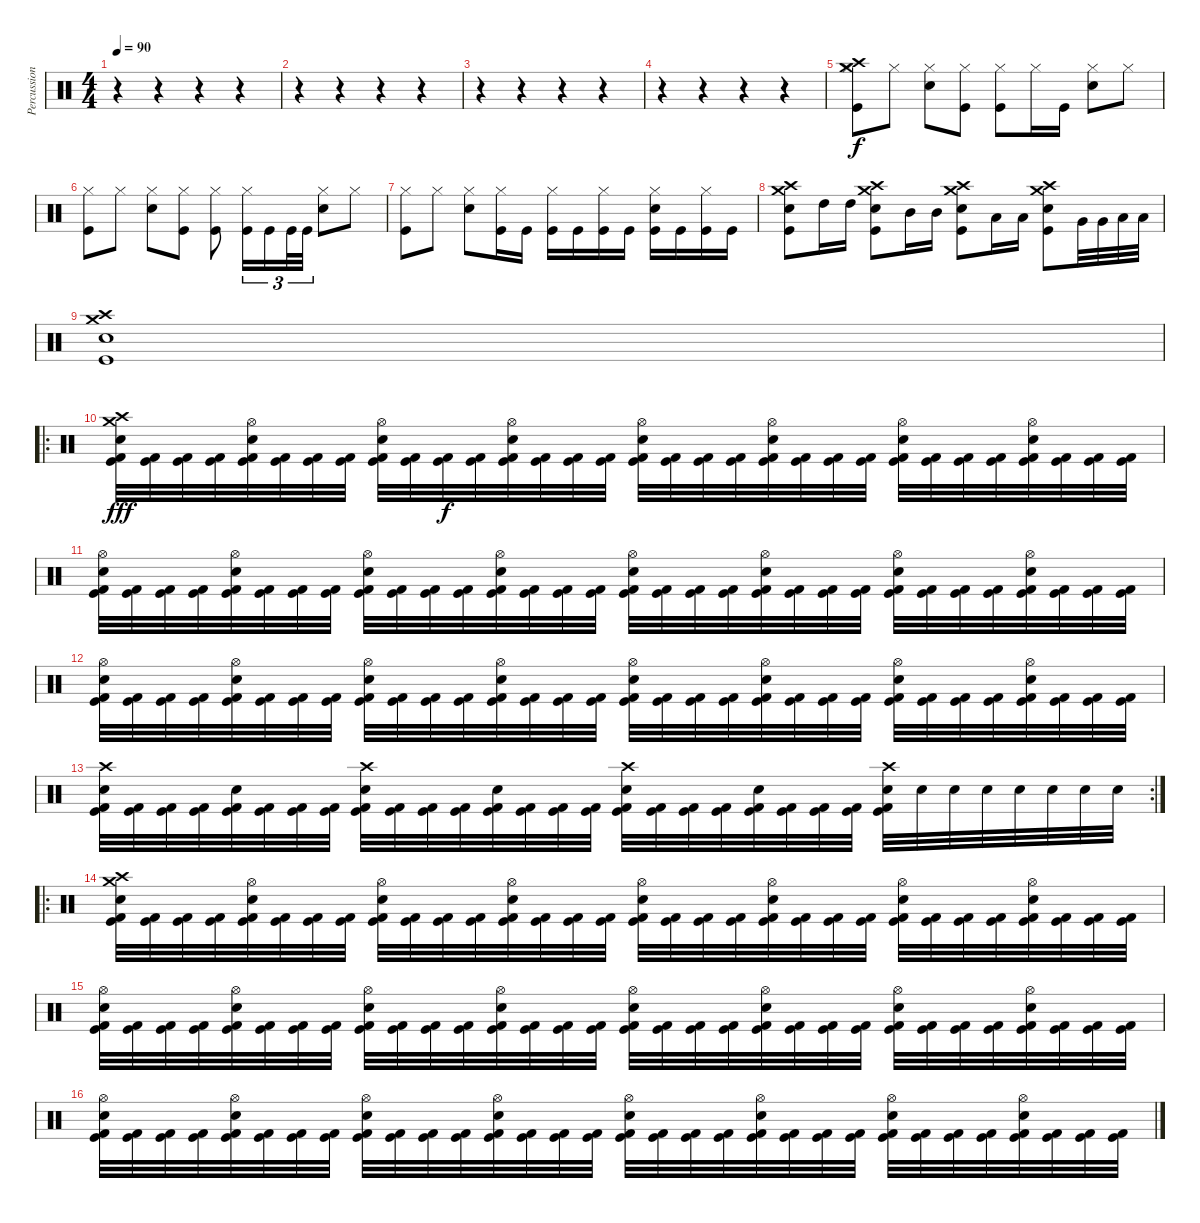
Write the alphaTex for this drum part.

\track ("Percussion" "Percussion") {instrument percussion}
\staff {score}
\articulation defaults
\ts (4 4)
\tempo 90
\clef neutral
\ks c
r.4{dy f} r.4 r.4 r.4 |
r.4 r.4 r.4 r.4 |
r.4 r.4 r.4 r.4 |
r.4 r.4 r.4 r.4 |
("Crash medium (hit)" "Crash high (hit)" "Hi-Hat (closed)" "Kick (hit)").8 "Hi-Hat (closed)".8 ("Hi-Hat (closed)" "Electric Snare (hit)").8 ("Hi-Hat (closed)" "Kick (hit)").8 ("Hi-Hat (closed)" "Kick (hit)").8 "Hi-Hat (closed)".16 "Kick (hit)".16 ("Hi-Hat (closed)" "Electric Snare (hit)").8 "Hi-Hat (closed)".8 |
("Hi-Hat (closed)" "Kick (hit)").8 "Hi-Hat (closed)".8 ("Hi-Hat (closed)" "Electric Snare (hit)").8 ("Hi-Hat (closed)" "Kick (hit)").8 ("Hi-Hat (closed)" "Kick (hit)").8 ("Hi-Hat (closed)" "Kick (hit)").16{tu (3 2)} "Kick (hit)".16{tu (3 2)} "Kick (hit)".32{tu (3 2)} "Kick (hit)".32{tu (3 2)} ("Hi-Hat (closed)" "Electric Snare (hit)").8 "Hi-Hat (closed)".8 |
("Hi-Hat (closed)" "Kick (hit)").8 "Hi-Hat (closed)".8 ("Hi-Hat (closed)" "Electric Snare (hit)").8 ("Hi-Hat (closed)" "Kick (hit)").16 "Kick (hit)".16 ("Hi-Hat (closed)" "Kick (hit)").16 "Kick (hit)".16 ("Hi-Hat (closed)" "Kick (hit)").16 "Kick (hit)".16 ("Hi-Hat (closed)" "Electric Snare (hit)" "Kick (hit)").16 "Kick (hit)".16 ("Hi-Hat (closed)" "Kick (hit)").16 "Kick (hit)".16 |
("Crash medium (hit)" "Crash high (hit)" "Electric Snare (hit)" "Kick (hit)").8 "High Tom (hit)".16 "High Tom (hit)".16 ("Crash medium (hit)" "Crash high (hit)" "Electric Snare (hit)" "Kick (hit)").8 "Mid Tom (hit)".16 "Mid Tom (hit)".16 ("Crash medium (hit)" "Crash high (hit)" "Electric Snare (hit)" "Kick (hit)").8 "Low Tom (hit)".16 "Low Tom (hit)".16 ("Crash medium (hit)" "Crash high (hit)" "Electric Snare (hit)" "Kick (hit)").8 "Very Low Tom (hit)".32 "Very Low Tom (hit)".32 "Low Floor Tom (hit)".32 "Low Floor Tom (hit)".32 |
("Crash medium (hit)" "Crash high (hit)" "Electric Snare (hit)" "Kick (hit)").1 |
\ro
("Kick (hit) 2" "Crash medium (hit)" "Crash high (hit)" "Electric Snare (hit)" "Kick (hit)").32{dy fff} ("Kick (hit) 2" "Kick (hit)").32 ("Kick (hit) 2" "Kick (hit)").32 ("Kick (hit) 2" "Kick (hit)").32 ("Kick (hit) 2" "Hi-Hat (open)" "Electric Snare (hit)" "Kick (hit)").32 ("Kick (hit) 2" "Kick (hit)").32 ("Kick (hit) 2" "Kick (hit)").32 ("Kick (hit) 2" "Kick (hit)").32 ("Kick (hit) 2" "Hi-Hat (open)" "Electric Snare (hit)" "Kick (hit)").32 ("Kick (hit) 2" "Kick (hit)").32 ("Kick (hit) 2" "Kick (hit)").32{dy f} ("Kick (hit) 2" "Kick (hit)").32 ("Kick (hit) 2" "Hi-Hat (open)" "Electric Snare (hit)" "Kick (hit)").32 ("Kick (hit) 2" "Kick (hit)").32 ("Kick (hit) 2" "Kick (hit)").32 ("Kick (hit) 2" "Kick (hit)").32 ("Kick (hit) 2" "Hi-Hat (open)" "Electric Snare (hit)" "Kick (hit)").32 ("Kick (hit) 2" "Kick (hit)").32 ("Kick (hit) 2" "Kick (hit)").32 ("Kick (hit) 2" "Kick (hit)").32 ("Kick (hit) 2" "Hi-Hat (open)" "Electric Snare (hit)" "Kick (hit)").32 ("Kick (hit) 2" "Kick (hit)").32 ("Kick (hit) 2" "Kick (hit)").32 ("Kick (hit) 2" "Kick (hit)").32 ("Kick (hit) 2" "Hi-Hat (open)" "Electric Snare (hit)" "Kick (hit)").32 ("Kick (hit) 2" "Kick (hit)").32 ("Kick (hit) 2" "Kick (hit)").32 ("Kick (hit) 2" "Kick (hit)").32 ("Kick (hit) 2" "Hi-Hat (open)" "Electric Snare (hit)" "Kick (hit)").32 ("Kick (hit) 2" "Kick (hit)").32 ("Kick (hit) 2" "Kick (hit)").32 ("Kick (hit) 2" "Kick (hit)").32 |
("Kick (hit) 2" "Hi-Hat (open)" "Electric Snare (hit)" "Kick (hit)").32 ("Kick (hit) 2" "Kick (hit)").32 ("Kick (hit) 2" "Kick (hit)").32 ("Kick (hit) 2" "Kick (hit)").32 ("Kick (hit) 2" "Hi-Hat (open)" "Electric Snare (hit)" "Kick (hit)").32 ("Kick (hit) 2" "Kick (hit)").32 ("Kick (hit) 2" "Kick (hit)").32 ("Kick (hit) 2" "Kick (hit)").32 ("Kick (hit) 2" "Hi-Hat (open)" "Electric Snare (hit)" "Kick (hit)").32 ("Kick (hit) 2" "Kick (hit)").32 ("Kick (hit) 2" "Kick (hit)").32 ("Kick (hit) 2" "Kick (hit)").32 ("Kick (hit) 2" "Hi-Hat (open)" "Electric Snare (hit)" "Kick (hit)").32 ("Kick (hit) 2" "Kick (hit)").32 ("Kick (hit) 2" "Kick (hit)").32 ("Kick (hit) 2" "Kick (hit)").32 ("Kick (hit) 2" "Hi-Hat (open)" "Electric Snare (hit)" "Kick (hit)").32 ("Kick (hit) 2" "Kick (hit)").32 ("Kick (hit) 2" "Kick (hit)").32 ("Kick (hit) 2" "Kick (hit)").32 ("Kick (hit) 2" "Hi-Hat (open)" "Electric Snare (hit)" "Kick (hit)").32 ("Kick (hit) 2" "Kick (hit)").32 ("Kick (hit) 2" "Kick (hit)").32 ("Kick (hit) 2" "Kick (hit)").32 ("Kick (hit) 2" "Hi-Hat (open)" "Electric Snare (hit)" "Kick (hit)").32 ("Kick (hit) 2" "Kick (hit)").32 ("Kick (hit) 2" "Kick (hit)").32 ("Kick (hit) 2" "Kick (hit)").32 ("Kick (hit) 2" "Hi-Hat (open)" "Electric Snare (hit)" "Kick (hit)").32 ("Kick (hit) 2" "Kick (hit)").32 ("Kick (hit) 2" "Kick (hit)").32 ("Kick (hit) 2" "Kick (hit)").32 |
("Kick (hit) 2" "Hi-Hat (open)" "Electric Snare (hit)" "Kick (hit)").32 ("Kick (hit) 2" "Kick (hit)").32 ("Kick (hit) 2" "Kick (hit)").32 ("Kick (hit) 2" "Kick (hit)").32 ("Kick (hit) 2" "Hi-Hat (open)" "Electric Snare (hit)" "Kick (hit)").32 ("Kick (hit) 2" "Kick (hit)").32 ("Kick (hit) 2" "Kick (hit)").32 ("Kick (hit) 2" "Kick (hit)").32 ("Kick (hit) 2" "Hi-Hat (open)" "Electric Snare (hit)" "Kick (hit)").32 ("Kick (hit) 2" "Kick (hit)").32 ("Kick (hit) 2" "Kick (hit)").32 ("Kick (hit) 2" "Kick (hit)").32 ("Kick (hit) 2" "Hi-Hat (open)" "Electric Snare (hit)" "Kick (hit)").32 ("Kick (hit) 2" "Kick (hit)").32 ("Kick (hit) 2" "Kick (hit)").32 ("Kick (hit) 2" "Kick (hit)").32 ("Kick (hit) 2" "Hi-Hat (open)" "Electric Snare (hit)" "Kick (hit)").32 ("Kick (hit) 2" "Kick (hit)").32 ("Kick (hit) 2" "Kick (hit)").32 ("Kick (hit) 2" "Kick (hit)").32 ("Kick (hit) 2" "Hi-Hat (open)" "Electric Snare (hit)" "Kick (hit)").32 ("Kick (hit) 2" "Kick (hit)").32 ("Kick (hit) 2" "Kick (hit)").32 ("Kick (hit) 2" "Kick (hit)").32 ("Kick (hit) 2" "Hi-Hat (open)" "Electric Snare (hit)" "Kick (hit)").32 ("Kick (hit) 2" "Kick (hit)").32 ("Kick (hit) 2" "Kick (hit)").32 ("Kick (hit) 2" "Kick (hit)").32 ("Kick (hit) 2" "Hi-Hat (open)" "Electric Snare (hit)" "Kick (hit)").32 ("Kick (hit) 2" "Kick (hit)").32 ("Kick (hit) 2" "Kick (hit)").32 ("Kick (hit) 2" "Kick (hit)").32 |
\rc 2
("Crash high (hit)" "Electric Snare (hit)" "Kick (hit) 2" "Kick (hit)").32 ("Kick (hit)" "Kick (hit) 2").32 ("Kick (hit)" "Kick (hit) 2").32 ("Kick (hit)" "Kick (hit) 2").32 ("Electric Snare (hit)" "Kick (hit)" "Kick (hit) 2").32 ("Kick (hit)" "Kick (hit) 2").32 ("Kick (hit)" "Kick (hit) 2").32 ("Kick (hit)" "Kick (hit) 2").32 ("Crash high (hit)" "Electric Snare (hit)" "Kick (hit) 2" "Kick (hit)").32 ("Kick (hit)" "Kick (hit) 2").32 ("Kick (hit)" "Kick (hit) 2").32 ("Kick (hit)" "Kick (hit) 2").32 ("Electric Snare (hit)" "Kick (hit)" "Kick (hit) 2").32 ("Kick (hit)" "Kick (hit) 2").32 ("Kick (hit)" "Kick (hit) 2").32 ("Kick (hit)" "Kick (hit) 2").32 ("Crash high (hit)" "Electric Snare (hit)" "Kick (hit)" "Kick (hit) 2").32 ("Kick (hit)" "Kick (hit) 2").32 ("Kick (hit)" "Kick (hit) 2").32 ("Kick (hit)" "Kick (hit) 2").32 ("Electric Snare (hit)" "Kick (hit)" "Kick (hit) 2").32 ("Kick (hit)" "Kick (hit) 2").32 ("Kick (hit)" "Kick (hit) 2").32 ("Kick (hit)" "Kick (hit) 2").32 ("Crash high (hit)" "Electric Snare (hit)" "Kick (hit)" "Kick (hit) 2").32 "Electric Snare (hit)".32 "Electric Snare (hit)".32 "Electric Snare (hit)".32 "Electric Snare (hit)".32 "Electric Snare (hit)".32 "Electric Snare (hit)".32 "Electric Snare (hit)".32 |
\ro
("Crash medium (hit)" "Crash high (hit)" "Kick (hit) 2" "Electric Snare (hit)" "Kick (hit)").32 ("Kick (hit) 2" "Kick (hit)").32 ("Kick (hit) 2" "Kick (hit)").32 ("Kick (hit) 2" "Kick (hit)").32 ("Hi-Hat (open)" "Kick (hit) 2" "Electric Snare (hit)" "Kick (hit)").32 ("Kick (hit) 2" "Kick (hit)").32 ("Kick (hit) 2" "Kick (hit)").32 ("Kick (hit) 2" "Kick (hit)").32 ("Hi-Hat (open)" "Kick (hit) 2" "Electric Snare (hit)" "Kick (hit)").32 ("Kick (hit) 2" "Kick (hit)").32 ("Kick (hit) 2" "Kick (hit)").32 ("Kick (hit) 2" "Kick (hit)").32 ("Hi-Hat (open)" "Kick (hit) 2" "Electric Snare (hit)" "Kick (hit)").32 ("Kick (hit) 2" "Kick (hit)").32 ("Kick (hit) 2" "Kick (hit)").32 ("Kick (hit) 2" "Kick (hit)").32 ("Hi-Hat (open)" "Kick (hit) 2" "Electric Snare (hit)" "Kick (hit)").32 ("Kick (hit) 2" "Kick (hit)").32 ("Kick (hit) 2" "Kick (hit)").32 ("Kick (hit) 2" "Kick (hit)").32 ("Hi-Hat (open)" "Kick (hit) 2" "Electric Snare (hit)" "Kick (hit)").32 ("Kick (hit) 2" "Kick (hit)").32 ("Kick (hit) 2" "Kick (hit)").32 ("Kick (hit) 2" "Kick (hit)").32 ("Hi-Hat (open)" "Kick (hit) 2" "Electric Snare (hit)" "Kick (hit)").32 ("Kick (hit) 2" "Kick (hit)").32 ("Kick (hit) 2" "Kick (hit)").32 ("Kick (hit) 2" "Kick (hit)").32 ("Hi-Hat (open)" "Kick (hit) 2" "Electric Snare (hit)" "Kick (hit)").32 ("Kick (hit) 2" "Kick (hit)").32 ("Kick (hit) 2" "Kick (hit)").32 ("Kick (hit) 2" "Kick (hit)").32 |
("Kick (hit) 2" "Hi-Hat (open)" "Electric Snare (hit)" "Kick (hit)").32 ("Kick (hit) 2" "Kick (hit)").32 ("Kick (hit) 2" "Kick (hit)").32 ("Kick (hit) 2" "Kick (hit)").32 ("Kick (hit) 2" "Hi-Hat (open)" "Electric Snare (hit)" "Kick (hit)").32 ("Kick (hit) 2" "Kick (hit)").32 ("Kick (hit) 2" "Kick (hit)").32 ("Kick (hit) 2" "Kick (hit)").32 ("Kick (hit) 2" "Hi-Hat (open)" "Electric Snare (hit)" "Kick (hit)").32 ("Kick (hit) 2" "Kick (hit)").32 ("Kick (hit) 2" "Kick (hit)").32 ("Kick (hit) 2" "Kick (hit)").32 ("Kick (hit) 2" "Hi-Hat (open)" "Electric Snare (hit)" "Kick (hit)").32 ("Kick (hit) 2" "Kick (hit)").32 ("Kick (hit) 2" "Kick (hit)").32 ("Kick (hit) 2" "Kick (hit)").32 ("Kick (hit) 2" "Hi-Hat (open)" "Electric Snare (hit)" "Kick (hit)").32 ("Kick (hit) 2" "Kick (hit)").32 ("Kick (hit) 2" "Kick (hit)").32 ("Kick (hit) 2" "Kick (hit)").32 ("Kick (hit) 2" "Hi-Hat (open)" "Electric Snare (hit)" "Kick (hit)").32 ("Kick (hit) 2" "Kick (hit)").32 ("Kick (hit) 2" "Kick (hit)").32 ("Kick (hit) 2" "Kick (hit)").32 ("Kick (hit) 2" "Hi-Hat (open)" "Electric Snare (hit)" "Kick (hit)").32 ("Kick (hit) 2" "Kick (hit)").32 ("Kick (hit) 2" "Kick (hit)").32 ("Kick (hit) 2" "Kick (hit)").32 ("Kick (hit) 2" "Hi-Hat (open)" "Electric Snare (hit)" "Kick (hit)").32 ("Kick (hit) 2" "Kick (hit)").32 ("Kick (hit) 2" "Kick (hit)").32 ("Kick (hit) 2" "Kick (hit)").32 |
("Kick (hit) 2" "Hi-Hat (open)" "Electric Snare (hit)" "Kick (hit)").32 ("Kick (hit) 2" "Kick (hit)").32 ("Kick (hit) 2" "Kick (hit)").32 ("Kick (hit) 2" "Kick (hit)").32 ("Kick (hit) 2" "Hi-Hat (open)" "Electric Snare (hit)" "Kick (hit)").32 ("Kick (hit) 2" "Kick (hit)").32 ("Kick (hit) 2" "Kick (hit)").32 ("Kick (hit) 2" "Kick (hit)").32 ("Kick (hit) 2" "Hi-Hat (open)" "Electric Snare (hit)" "Kick (hit)").32 ("Kick (hit) 2" "Kick (hit)").32 ("Kick (hit) 2" "Kick (hit)").32 ("Kick (hit) 2" "Kick (hit)").32 ("Kick (hit) 2" "Hi-Hat (open)" "Electric Snare (hit)" "Kick (hit)").32 ("Kick (hit) 2" "Kick (hit)").32 ("Kick (hit) 2" "Kick (hit)").32 ("Kick (hit) 2" "Kick (hit)").32 ("Kick (hit) 2" "Hi-Hat (open)" "Electric Snare (hit)" "Kick (hit)").32 ("Kick (hit) 2" "Kick (hit)").32 ("Kick (hit) 2" "Kick (hit)").32 ("Kick (hit) 2" "Kick (hit)").32 ("Kick (hit) 2" "Hi-Hat (open)" "Electric Snare (hit)" "Kick (hit)").32 ("Kick (hit) 2" "Kick (hit)").32 ("Kick (hit) 2" "Kick (hit)").32 ("Kick (hit) 2" "Kick (hit)").32 ("Kick (hit) 2" "Hi-Hat (open)" "Electric Snare (hit)" "Kick (hit)").32 ("Kick (hit) 2" "Kick (hit)").32 ("Kick (hit) 2" "Kick (hit)").32 ("Kick (hit) 2" "Kick (hit)").32 ("Kick (hit) 2" "Hi-Hat (open)" "Electric Snare (hit)" "Kick (hit)").32 ("Kick (hit) 2" "Kick (hit)").32 ("Kick (hit) 2" "Kick (hit)").32 ("Kick (hit) 2" "Kick (hit)").32
